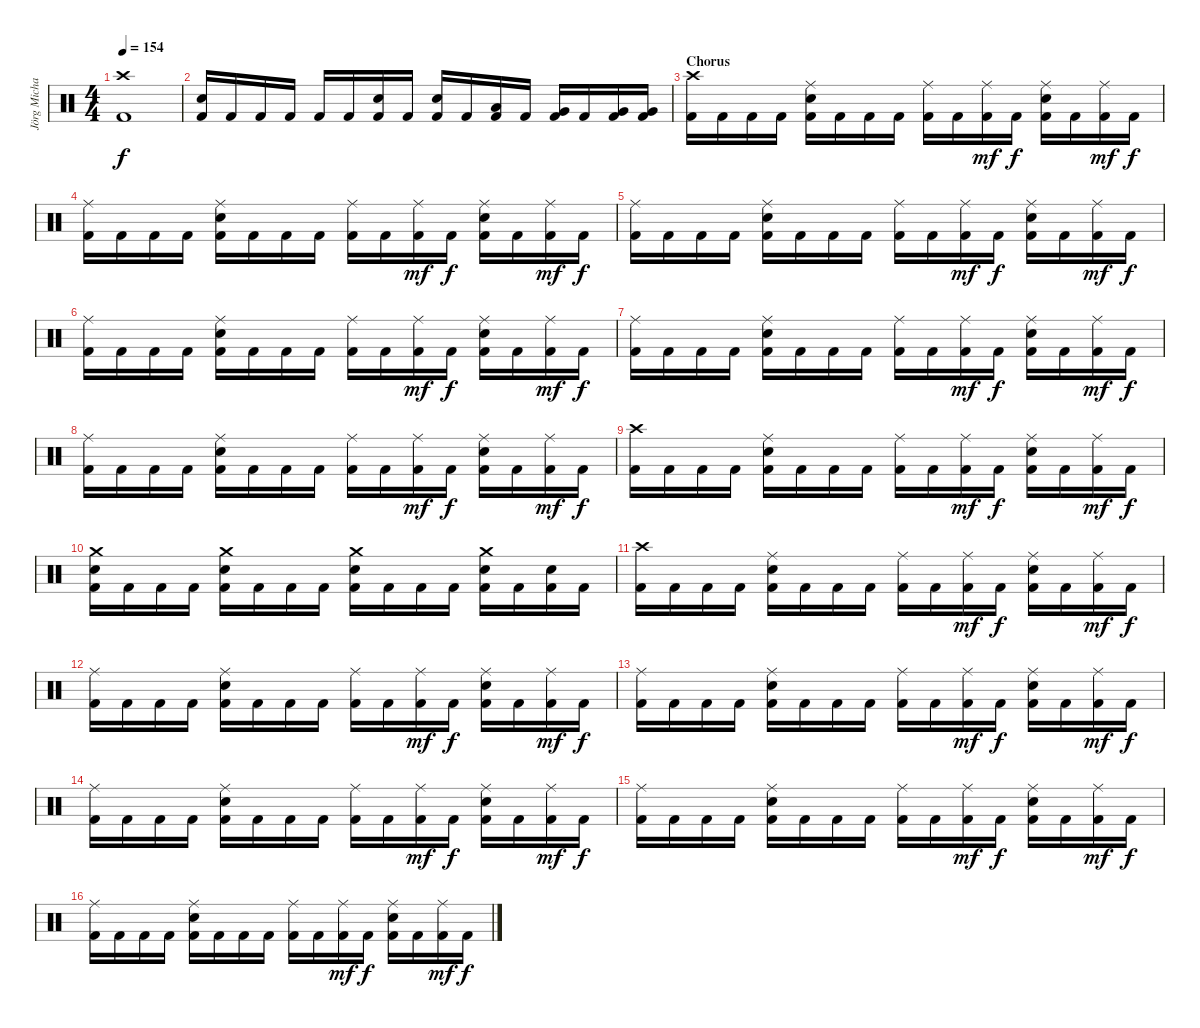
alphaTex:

\track ("Jörg Michael - Drums" "Jörg Micha") {instrument percussion}
\staff {score}
\articulation defaults
\ts (4 4)
\tempo 154
\clef neutral
\ks c
("Crash high (hit)" "Kick (hit) 2").1{dy f} |
("Electric Snare (hit)" "Kick (hit) 2").16 "Kick (hit) 2".16 "Kick (hit) 2".16 "Kick (hit) 2".16 "Kick (hit) 2".16 "Kick (hit) 2".16 ("Electric Snare (hit)" "Kick (hit) 2").16 "Kick (hit) 2".16 ("Electric Snare (hit)" "Kick (hit) 2").16 "Kick (hit) 2".16 ("Low Tom (hit)" "Kick (hit) 2").16 "Kick (hit) 2".16 ("Very Low Tom (hit)" "Kick (hit) 2").16 "Kick (hit) 2".16 ("Very Low Tom (hit)" "Kick (hit) 2").16 ("Very Low Tom (hit)" "Kick (hit) 2").16 |
\section ("" "Chorus")
("Crash high (hit)" "Kick (hit) 2").16 "Kick (hit) 2".16 "Kick (hit) 2".16 "Kick (hit) 2".16 ("Ride (middle)" "Electric Snare (hit)" "Kick (hit) 2").16 "Kick (hit) 2".16 "Kick (hit) 2".16 "Kick (hit) 2".16 ("Ride (middle)" "Kick (hit) 2").16 "Kick (hit) 2".16 ("Ride (middle)" "Kick (hit) 2").16{dy mf} "Kick (hit) 2".16{dy f} ("Ride (middle)" "Electric Snare (hit)" "Kick (hit) 2").16 "Kick (hit) 2".16 ("Ride (middle)" "Kick (hit) 2").16{dy mf} "Kick (hit) 2".16{dy f} |
("Ride (middle)" "Kick (hit) 2").16 "Kick (hit) 2".16 "Kick (hit) 2".16 "Kick (hit) 2".16 ("Ride (middle)" "Electric Snare (hit)" "Kick (hit) 2").16 "Kick (hit) 2".16 "Kick (hit) 2".16 "Kick (hit) 2".16 ("Ride (middle)" "Kick (hit) 2").16 "Kick (hit) 2".16 ("Ride (middle)" "Kick (hit) 2").16{dy mf} "Kick (hit) 2".16{dy f} ("Ride (middle)" "Electric Snare (hit)" "Kick (hit) 2").16 "Kick (hit) 2".16 ("Ride (middle)" "Kick (hit) 2").16{dy mf} "Kick (hit) 2".16{dy f} |
("Ride (middle)" "Kick (hit) 2").16 "Kick (hit) 2".16 "Kick (hit) 2".16 "Kick (hit) 2".16 ("Ride (middle)" "Electric Snare (hit)" "Kick (hit) 2").16 "Kick (hit) 2".16 "Kick (hit) 2".16 "Kick (hit) 2".16 ("Ride (middle)" "Kick (hit) 2").16 "Kick (hit) 2".16 ("Ride (middle)" "Kick (hit) 2").16{dy mf} "Kick (hit) 2".16{dy f} ("Ride (middle)" "Electric Snare (hit)" "Kick (hit) 2").16 "Kick (hit) 2".16 ("Ride (middle)" "Kick (hit) 2").16{dy mf} "Kick (hit) 2".16{dy f} |
("Ride (middle)" "Kick (hit) 2").16 "Kick (hit) 2".16 "Kick (hit) 2".16 "Kick (hit) 2".16 ("Ride (middle)" "Electric Snare (hit)" "Kick (hit) 2").16 "Kick (hit) 2".16 "Kick (hit) 2".16 "Kick (hit) 2".16 ("Ride (middle)" "Kick (hit) 2").16 "Kick (hit) 2".16 ("Ride (middle)" "Kick (hit) 2").16{dy mf} "Kick (hit) 2".16{dy f} ("Ride (middle)" "Electric Snare (hit)" "Kick (hit) 2").16 "Kick (hit) 2".16 ("Ride (middle)" "Kick (hit) 2").16{dy mf} "Kick (hit) 2".16{dy f} |
("Ride (middle)" "Kick (hit) 2").16 "Kick (hit) 2".16 "Kick (hit) 2".16 "Kick (hit) 2".16 ("Ride (middle)" "Electric Snare (hit)" "Kick (hit) 2").16 "Kick (hit) 2".16 "Kick (hit) 2".16 "Kick (hit) 2".16 ("Ride (middle)" "Kick (hit) 2").16 "Kick (hit) 2".16 ("Ride (middle)" "Kick (hit) 2").16{dy mf} "Kick (hit) 2".16{dy f} ("Ride (middle)" "Electric Snare (hit)" "Kick (hit) 2").16 "Kick (hit) 2".16 ("Ride (middle)" "Kick (hit) 2").16{dy mf} "Kick (hit) 2".16{dy f} |
("Ride (middle)" "Kick (hit) 2").16 "Kick (hit) 2".16 "Kick (hit) 2".16 "Kick (hit) 2".16 ("Ride (middle)" "Electric Snare (hit)" "Kick (hit) 2").16 "Kick (hit) 2".16 "Kick (hit) 2".16 "Kick (hit) 2".16 ("Ride (middle)" "Kick (hit) 2").16 "Kick (hit) 2".16 ("Ride (middle)" "Kick (hit) 2").16{dy mf} "Kick (hit) 2".16{dy f} ("Ride (middle)" "Electric Snare (hit)" "Kick (hit) 2").16 "Kick (hit) 2".16 ("Ride (middle)" "Kick (hit) 2").16{dy mf} "Kick (hit) 2".16{dy f} |
("Crash high (hit)" "Kick (hit) 2").16 "Kick (hit) 2".16 "Kick (hit) 2".16 "Kick (hit) 2".16 ("Ride (middle)" "Electric Snare (hit)" "Kick (hit) 2").16 "Kick (hit) 2".16 "Kick (hit) 2".16 "Kick (hit) 2".16 ("Ride (middle)" "Kick (hit) 2").16 "Kick (hit) 2".16 ("Ride (middle)" "Kick (hit) 2").16{dy mf} "Kick (hit) 2".16{dy f} ("Ride (middle)" "Electric Snare (hit)" "Kick (hit) 2").16 "Kick (hit) 2".16 ("Ride (middle)" "Kick (hit) 2").16{dy mf} "Kick (hit) 2".16{dy f} |
("Crash medium (hit)" "Electric Snare (hit)" "Kick (hit) 2").16 "Kick (hit) 2".16 "Kick (hit) 2".16 "Kick (hit) 2".16 ("Crash medium (hit)" "Electric Snare (hit)" "Kick (hit) 2").16 "Kick (hit) 2".16 "Kick (hit) 2".16 "Kick (hit) 2".16 ("Crash medium (hit)" "Electric Snare (hit)" "Kick (hit) 2").16 "Kick (hit) 2".16 "Kick (hit) 2".16 "Kick (hit) 2".16 ("Crash medium (hit)" "Electric Snare (hit)" "Kick (hit) 2").16 "Kick (hit) 2".16 ("Electric Snare (hit)" "Kick (hit) 2").16 "Kick (hit) 2".16 |
("Crash high (hit)" "Kick (hit) 2").16 "Kick (hit) 2".16 "Kick (hit) 2".16 "Kick (hit) 2".16 ("Ride (middle)" "Electric Snare (hit)" "Kick (hit) 2").16 "Kick (hit) 2".16 "Kick (hit) 2".16 "Kick (hit) 2".16 ("Ride (middle)" "Kick (hit) 2").16 "Kick (hit) 2".16 ("Ride (middle)" "Kick (hit) 2").16{dy mf} "Kick (hit) 2".16{dy f} ("Ride (middle)" "Electric Snare (hit)" "Kick (hit) 2").16 "Kick (hit) 2".16 ("Ride (middle)" "Kick (hit) 2").16{dy mf} "Kick (hit) 2".16{dy f} |
("Ride (middle)" "Kick (hit) 2").16 "Kick (hit) 2".16 "Kick (hit) 2".16 "Kick (hit) 2".16 ("Ride (middle)" "Electric Snare (hit)" "Kick (hit) 2").16 "Kick (hit) 2".16 "Kick (hit) 2".16 "Kick (hit) 2".16 ("Ride (middle)" "Kick (hit) 2").16 "Kick (hit) 2".16 ("Ride (middle)" "Kick (hit) 2").16{dy mf} "Kick (hit) 2".16{dy f} ("Ride (middle)" "Electric Snare (hit)" "Kick (hit) 2").16 "Kick (hit) 2".16 ("Ride (middle)" "Kick (hit) 2").16{dy mf} "Kick (hit) 2".16{dy f} |
("Ride (middle)" "Kick (hit) 2").16 "Kick (hit) 2".16 "Kick (hit) 2".16 "Kick (hit) 2".16 ("Ride (middle)" "Electric Snare (hit)" "Kick (hit) 2").16 "Kick (hit) 2".16 "Kick (hit) 2".16 "Kick (hit) 2".16 ("Ride (middle)" "Kick (hit) 2").16 "Kick (hit) 2".16 ("Ride (middle)" "Kick (hit) 2").16{dy mf} "Kick (hit) 2".16{dy f} ("Ride (middle)" "Electric Snare (hit)" "Kick (hit) 2").16 "Kick (hit) 2".16 ("Ride (middle)" "Kick (hit) 2").16{dy mf} "Kick (hit) 2".16{dy f} |
("Ride (middle)" "Kick (hit) 2").16 "Kick (hit) 2".16 "Kick (hit) 2".16 "Kick (hit) 2".16 ("Ride (middle)" "Electric Snare (hit)" "Kick (hit) 2").16 "Kick (hit) 2".16 "Kick (hit) 2".16 "Kick (hit) 2".16 ("Ride (middle)" "Kick (hit) 2").16 "Kick (hit) 2".16 ("Ride (middle)" "Kick (hit) 2").16{dy mf} "Kick (hit) 2".16{dy f} ("Ride (middle)" "Electric Snare (hit)" "Kick (hit) 2").16 "Kick (hit) 2".16 ("Ride (middle)" "Kick (hit) 2").16{dy mf} "Kick (hit) 2".16{dy f} |
("Ride (middle)" "Kick (hit) 2").16 "Kick (hit) 2".16 "Kick (hit) 2".16 "Kick (hit) 2".16 ("Ride (middle)" "Electric Snare (hit)" "Kick (hit) 2").16 "Kick (hit) 2".16 "Kick (hit) 2".16 "Kick (hit) 2".16 ("Ride (middle)" "Kick (hit) 2").16 "Kick (hit) 2".16 ("Ride (middle)" "Kick (hit) 2").16{dy mf} "Kick (hit) 2".16{dy f} ("Ride (middle)" "Electric Snare (hit)" "Kick (hit) 2").16 "Kick (hit) 2".16 ("Ride (middle)" "Kick (hit) 2").16{dy mf} "Kick (hit) 2".16{dy f} |
("Ride (middle)" "Kick (hit) 2").16 "Kick (hit) 2".16 "Kick (hit) 2".16 "Kick (hit) 2".16 ("Ride (middle)" "Electric Snare (hit)" "Kick (hit) 2").16 "Kick (hit) 2".16 "Kick (hit) 2".16 "Kick (hit) 2".16 ("Ride (middle)" "Kick (hit) 2").16 "Kick (hit) 2".16 ("Ride (middle)" "Kick (hit) 2").16{dy mf} "Kick (hit) 2".16{dy f} ("Ride (middle)" "Electric Snare (hit)" "Kick (hit) 2").16 "Kick (hit) 2".16 ("Ride (middle)" "Kick (hit) 2").16{dy mf} "Kick (hit) 2".16{dy f}
